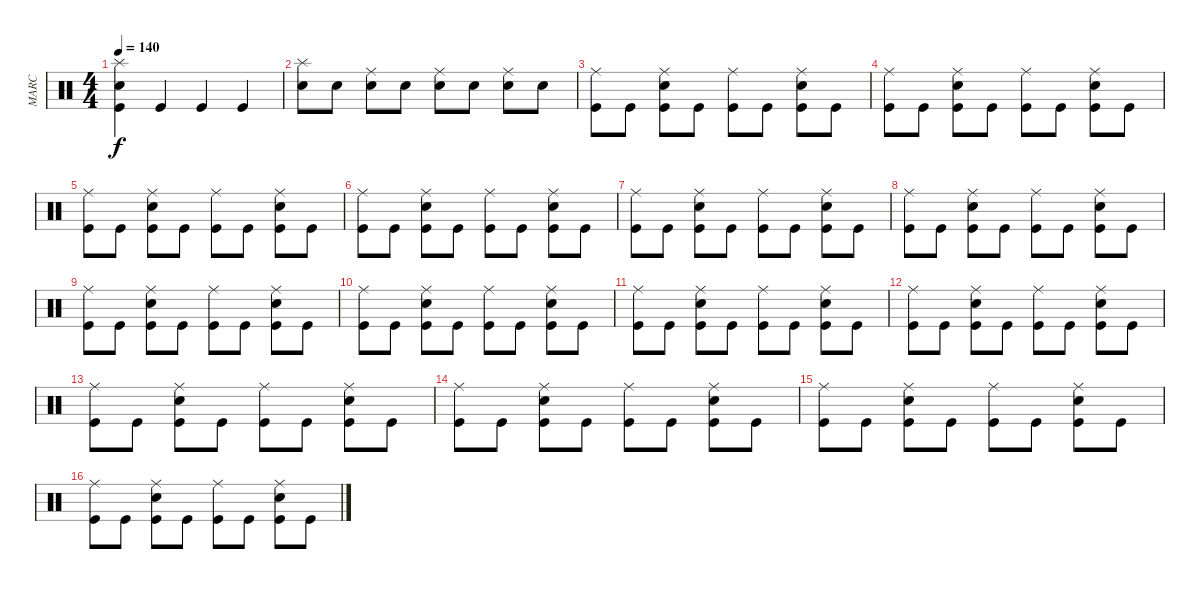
\track ("MARC" "MARC") {instrument percussion}
\staff {score}
\articulation defaults
\ts (4 4)
\tempo 140
\clef neutral
\ks c
("Kick (hit)" "Snare (hit) 2" "Splash (hit)").4{dy f} "Kick (hit)".4 "Kick (hit)".4 "Kick (hit)".4 |
("Snare (hit) 2" "Splash (hit)").8 "Snare (hit) 2".8 ("Snare (hit) 2" "Ride (middle)").8 "Snare (hit) 2".8 ("Snare (hit) 2" "Ride (middle)").8 "Snare (hit) 2".8 ("Snare (hit) 2" "Ride (middle)").8 "Snare (hit) 2".8 |
("Kick (hit)" "Ride (middle)").8 "Kick (hit)".8 ("Kick (hit)" "Snare (hit) 2" "Ride (middle)").8 "Kick (hit)".8 ("Kick (hit)" "Ride (middle)").8 "Kick (hit)".8 ("Kick (hit)" "Snare (hit) 2" "Ride (middle)").8 "Kick (hit)".8 |
("Kick (hit)" "Ride (middle)").8 "Kick (hit)".8 ("Kick (hit)" "Snare (hit) 2" "Ride (middle)").8 "Kick (hit)".8 ("Kick (hit)" "Ride (middle)").8 "Kick (hit)".8 ("Kick (hit)" "Snare (hit) 2" "Ride (middle)").8 "Kick (hit)".8 |
("Kick (hit)" "Ride (middle)").8 "Kick (hit)".8 ("Kick (hit)" "Snare (hit) 2" "Ride (middle)").8 "Kick (hit)".8 ("Kick (hit)" "Ride (middle)").8 "Kick (hit)".8 ("Kick (hit)" "Snare (hit) 2" "Ride (middle)").8 "Kick (hit)".8 |
("Kick (hit)" "Ride (middle)").8 "Kick (hit)".8 ("Kick (hit)" "Snare (hit) 2" "Ride (middle)").8 "Kick (hit)".8 ("Kick (hit)" "Ride (middle)").8 "Kick (hit)".8 ("Kick (hit)" "Snare (hit) 2" "Ride (middle)").8 "Kick (hit)".8 |
("Kick (hit)" "Ride (middle)").8 "Kick (hit)".8 ("Kick (hit)" "Snare (hit) 2" "Ride (middle)").8 "Kick (hit)".8 ("Kick (hit)" "Ride (middle)").8 "Kick (hit)".8 ("Kick (hit)" "Snare (hit) 2" "Ride (middle)").8 "Kick (hit)".8 |
("Kick (hit)" "Ride (middle)").8 "Kick (hit)".8 ("Kick (hit)" "Snare (hit) 2" "Ride (middle)").8 "Kick (hit)".8 ("Kick (hit)" "Ride (middle)").8 "Kick (hit)".8 ("Kick (hit)" "Snare (hit) 2" "Ride (middle)").8 "Kick (hit)".8 |
("Kick (hit)" "Ride (middle)").8 "Kick (hit)".8 ("Kick (hit)" "Snare (hit) 2" "Ride (middle)").8 "Kick (hit)".8 ("Kick (hit)" "Ride (middle)").8 "Kick (hit)".8 ("Kick (hit)" "Snare (hit) 2" "Ride (middle)").8 "Kick (hit)".8 |
("Kick (hit)" "Ride (middle)").8 "Kick (hit)".8 ("Kick (hit)" "Snare (hit) 2" "Ride (middle)").8 "Kick (hit)".8 ("Kick (hit)" "Ride (middle)").8 "Kick (hit)".8 ("Kick (hit)" "Snare (hit) 2" "Ride (middle)").8 "Kick (hit)".8 |
("Kick (hit)" "Ride (middle)").8 "Kick (hit)".8 ("Kick (hit)" "Snare (hit) 2" "Ride (middle)").8 "Kick (hit)".8 ("Kick (hit)" "Ride (middle)").8 "Kick (hit)".8 ("Kick (hit)" "Snare (hit) 2" "Ride (middle)").8 "Kick (hit)".8 |
("Kick (hit)" "Ride (middle)").8 "Kick (hit)".8 ("Kick (hit)" "Snare (hit) 2" "Ride (middle)").8 "Kick (hit)".8 ("Kick (hit)" "Ride (middle)").8 "Kick (hit)".8 ("Kick (hit)" "Snare (hit) 2" "Ride (middle)").8 "Kick (hit)".8 |
("Kick (hit)" "Ride (middle)").8 "Kick (hit)".8 ("Kick (hit)" "Snare (hit) 2" "Ride (middle)").8 "Kick (hit)".8 ("Kick (hit)" "Ride (middle)").8 "Kick (hit)".8 ("Kick (hit)" "Snare (hit) 2" "Ride (middle)").8 "Kick (hit)".8 |
("Kick (hit)" "Ride (middle)").8 "Kick (hit)".8 ("Kick (hit)" "Snare (hit) 2" "Ride (middle)").8 "Kick (hit)".8 ("Kick (hit)" "Ride (middle)").8 "Kick (hit)".8 ("Kick (hit)" "Snare (hit) 2" "Ride (middle)").8 "Kick (hit)".8 |
("Kick (hit)" "Ride (middle)").8 "Kick (hit)".8 ("Kick (hit)" "Snare (hit) 2" "Ride (middle)").8 "Kick (hit)".8 ("Kick (hit)" "Ride (middle)").8 "Kick (hit)".8 ("Kick (hit)" "Snare (hit) 2" "Ride (middle)").8 "Kick (hit)".8 |
("Kick (hit)" "Ride (middle)").8 "Kick (hit)".8 ("Kick (hit)" "Snare (hit) 2" "Ride (middle)").8 "Kick (hit)".8 ("Kick (hit)" "Ride (middle)").8 "Kick (hit)".8 ("Kick (hit)" "Snare (hit) 2" "Ride (middle)").8 "Kick (hit)".8
